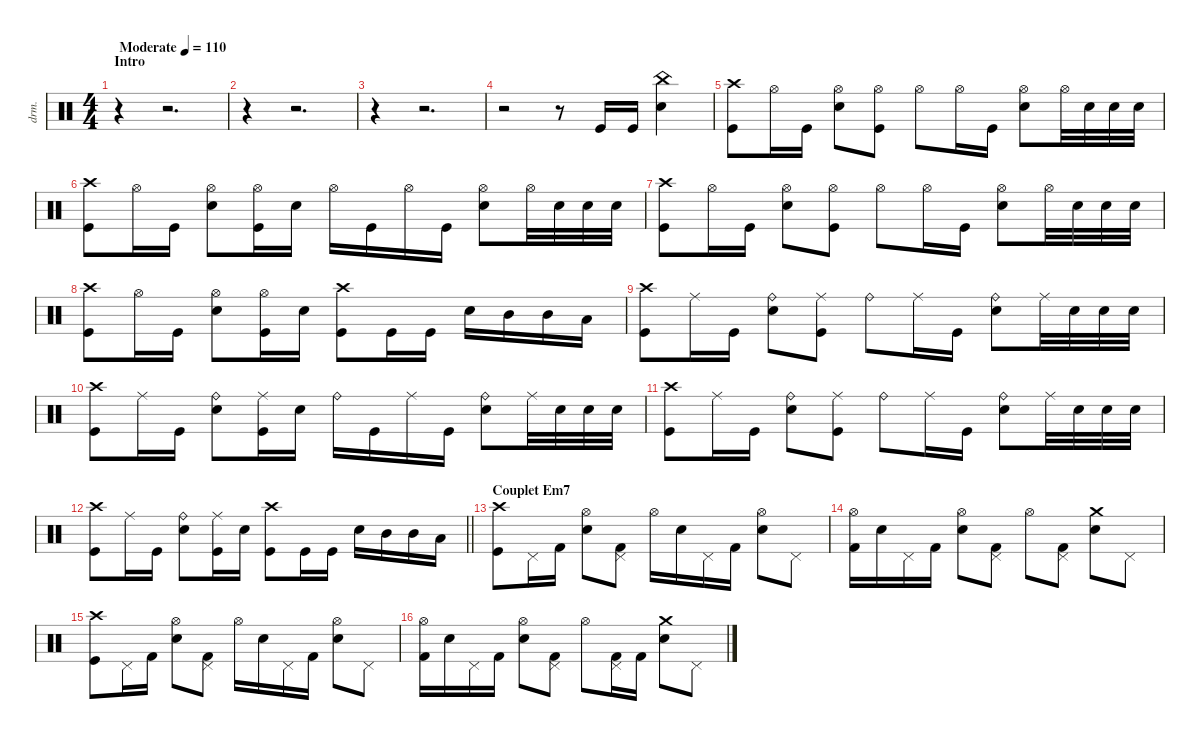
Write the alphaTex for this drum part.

\defaultSystemsLayout 4
\hideDynamics
\bracketExtendMode nobrackets
\otherSystemsTrackNameOrientation horizontal
\track ("Manu" "drm.") {instrument percussion}
\staff {score}
\articulation defaults
\ts (4 4)
\beaming (8 2 2 2 2)
\section ("" "Intro")
\tempo (110 "Moderate")
\clef neutral
\ks c
r.4{dy f} r.2{d} |
r.4 r.2{d} |
r.4 r.2{d} |
r.2 r.8 "Kick (hit)".16 "Kick (hit)".16 ("Snare (hit) 2" "China (hit)").4 |
("Crash high (hit)" "Kick (hit)").8 "Hi-Hat (open)".16{dy p} "Kick (hit)".16{dy f} ("Hi-Hat (open)" "Snare (hit) 2").8 ("Hi-Hat (open)" "Kick (hit)").8{dy p} "Hi-Hat (open)".8{dy f} "Hi-Hat (open)".16{dy p} "Kick (hit)".16{dy f} ("Hi-Hat (open)" "Snare (hit) 2").8 "Hi-Hat (open)".32{dy p} "Snare (hit) 2".32{dy pp} "Snare (hit) 2".32 "Snare (hit) 2".32 |
("Crash high (hit)" "Kick (hit)").8{dy f} "Hi-Hat (open)".16{dy p} "Kick (hit)".16{dy f} ("Hi-Hat (open)" "Snare (hit) 2").8 ("Hi-Hat (open)" "Kick (hit)").16{dy p} "Snare (hit) 2".16{dy pp} "Hi-Hat (open)".16{dy f} "Kick (hit)".16 "Hi-Hat (open)".16{dy p} "Kick (hit)".16{dy f} ("Hi-Hat (open)" "Snare (hit) 2").8 "Hi-Hat (open)".32{dy p} "Snare (hit) 2".32{dy pp} "Snare (hit) 2".32 "Snare (hit) 2".32 |
("Crash high (hit)" "Kick (hit)").8{dy f} "Hi-Hat (open)".16{dy p} "Kick (hit)".16{dy f} ("Hi-Hat (open)" "Snare (hit) 2").8 ("Hi-Hat (open)" "Kick (hit)").8{dy p} "Hi-Hat (open)".8{dy f} "Hi-Hat (open)".16{dy p} "Kick (hit)".16{dy f} ("Hi-Hat (open)" "Snare (hit) 2").8 "Hi-Hat (open)".32{dy p} "Snare (hit) 2".32{dy mp} "Snare (hit) 2".32 "Snare (hit) 2".32 |
("Crash high (hit)" "Kick (hit)").8{dy f} "Hi-Hat (open)".16{dy p} "Kick (hit)".16{dy f} ("Hi-Hat (open)" "Snare (hit) 2").8 ("Hi-Hat (open)" "Kick (hit)").16{dy p} "Snare (hit) 2".16{dy pp} ("Crash high (hit)" "Kick (hit)").8{dy f} "Kick (hit)".16 "Kick (hit)".16 "Snare (hit) 2".16 "Mid Tom (hit)".16 "Mid Tom (hit)".16 "Low Tom (hit)".16 |
("Crash high (hit)" "Kick (hit)").8 "Ride (middle)".16{dy mf} "Kick (hit)".16{dy f} ("Ride (bell)" "Snare (hit) 2").8 ("Ride (middle)" "Kick (hit)").8{dy mf} "Ride (bell)".8{dy f} "Ride (middle)".16{dy mf} "Kick (hit)".16{dy f} ("Ride (bell)" "Snare (hit) 2").8 "Ride (middle)".32{dy mf} "Snare (hit) 2".32{dy pp} "Snare (hit) 2".32 "Snare (hit) 2".32 |
("Crash high (hit)" "Kick (hit)").8{dy f} "Ride (middle)".16{dy mf} "Kick (hit)".16{dy f} ("Ride (bell)" "Snare (hit) 2").8 ("Ride (middle)" "Kick (hit)").16{dy mf} "Snare (hit) 2".16{dy pp} "Ride (bell)".16{dy mf} "Kick (hit)".16{dy f} "Ride (middle)".16{dy mf} "Kick (hit)".16{dy f} ("Ride (bell)" "Snare (hit) 2").8 "Ride (middle)".32{dy mf} "Snare (hit) 2".32{dy pp} "Snare (hit) 2".32 "Snare (hit) 2".32 |
("Crash high (hit)" "Kick (hit)").8{dy f} "Ride (middle)".16{dy mf} "Kick (hit)".16{dy f} ("Ride (bell)" "Snare (hit) 2").8 ("Ride (middle)" "Kick (hit)").8{dy mf} "Ride (bell)".8{dy f} "Ride (middle)".16{dy mf} "Kick (hit)".16{dy f} ("Ride (bell)" "Snare (hit) 2").8 "Ride (middle)".32{dy mf} "Snare (hit) 2".32{dy pp} "Snare (hit) 2".32 "Snare (hit) 2".32 |
\barLineRight lightlight
("Crash high (hit)" "Kick (hit)").8{dy f} "Ride (middle)".16{dy mf} "Kick (hit)".16{dy f} ("Ride (bell)" "Snare (hit) 2").8 ("Ride (middle)" "Kick (hit)").16{dy mf} "Snare (hit) 2".16{dy pp} ("Crash high (hit)" "Kick (hit)").8{dy f} "Kick (hit)".16 "Kick (hit)".16 "Snare (hit) 2".16 "Mid Tom (hit)".16 "Mid Tom (hit)".16 "Low Tom (hit)".16 |
\section ("" "Couplet Em7")
("Crash high (hit)" "Kick (hit)").8 "Pedal Hi-Hat (hit)".16 "Kick (hit) 2".16 ("Hi-Hat (open)" "Snare (hit) 2").8 ("Pedal Hi-Hat (hit)" "Kick (hit) 2").8 "Hi-Hat (open)".16 "Snare (hit) 2".16{dy mp} "Pedal Hi-Hat (hit)".16{dy f} "Kick (hit) 2".16{dy mp} ("Hi-Hat (open)" "Snare (hit) 2").8{dy f} "Pedal Hi-Hat (hit)".8 |
("Hi-Hat (open)" "Kick (hit) 2").16 "Snare (hit) 2".16{dy mp} "Pedal Hi-Hat (hit)".16{dy f} "Kick (hit) 2".16 ("Hi-Hat (open)" "Snare (hit) 2").8 ("Pedal Hi-Hat (hit)" "Kick (hit) 2").8 "Hi-Hat (open)".8 ("Pedal Hi-Hat (hit)" "Kick (hit) 2").8{dy mp} ("Snare (hit) 2" "Crash medium (hit)").8{dy f} "Pedal Hi-Hat (hit)".8 |
("Crash high (hit)" "Kick (hit)").8 "Pedal Hi-Hat (hit)".16 "Kick (hit) 2".16 ("Hi-Hat (open)" "Snare (hit) 2").8 ("Pedal Hi-Hat (hit)" "Kick (hit) 2").8 "Hi-Hat (open)".16 "Snare (hit) 2".16{dy mp} "Pedal Hi-Hat (hit)".16{dy f} "Kick (hit) 2".16{dy mp} ("Hi-Hat (open)" "Snare (hit) 2").8{dy f} "Pedal Hi-Hat (hit)".8 |
("Hi-Hat (open)" "Kick (hit) 2").16 "Snare (hit) 2".16{dy mp} "Pedal Hi-Hat (hit)".16{dy f} "Kick (hit) 2".16 ("Hi-Hat (open)" "Snare (hit) 2").8 ("Pedal Hi-Hat (hit)" "Kick (hit) 2").8 "Hi-Hat (open)".8 ("Pedal Hi-Hat (hit)" "Kick (hit) 2").16 "Kick (hit) 2".16 ("Snare (hit) 2" "Crash medium (hit)").8 "Pedal Hi-Hat (hit)".8
